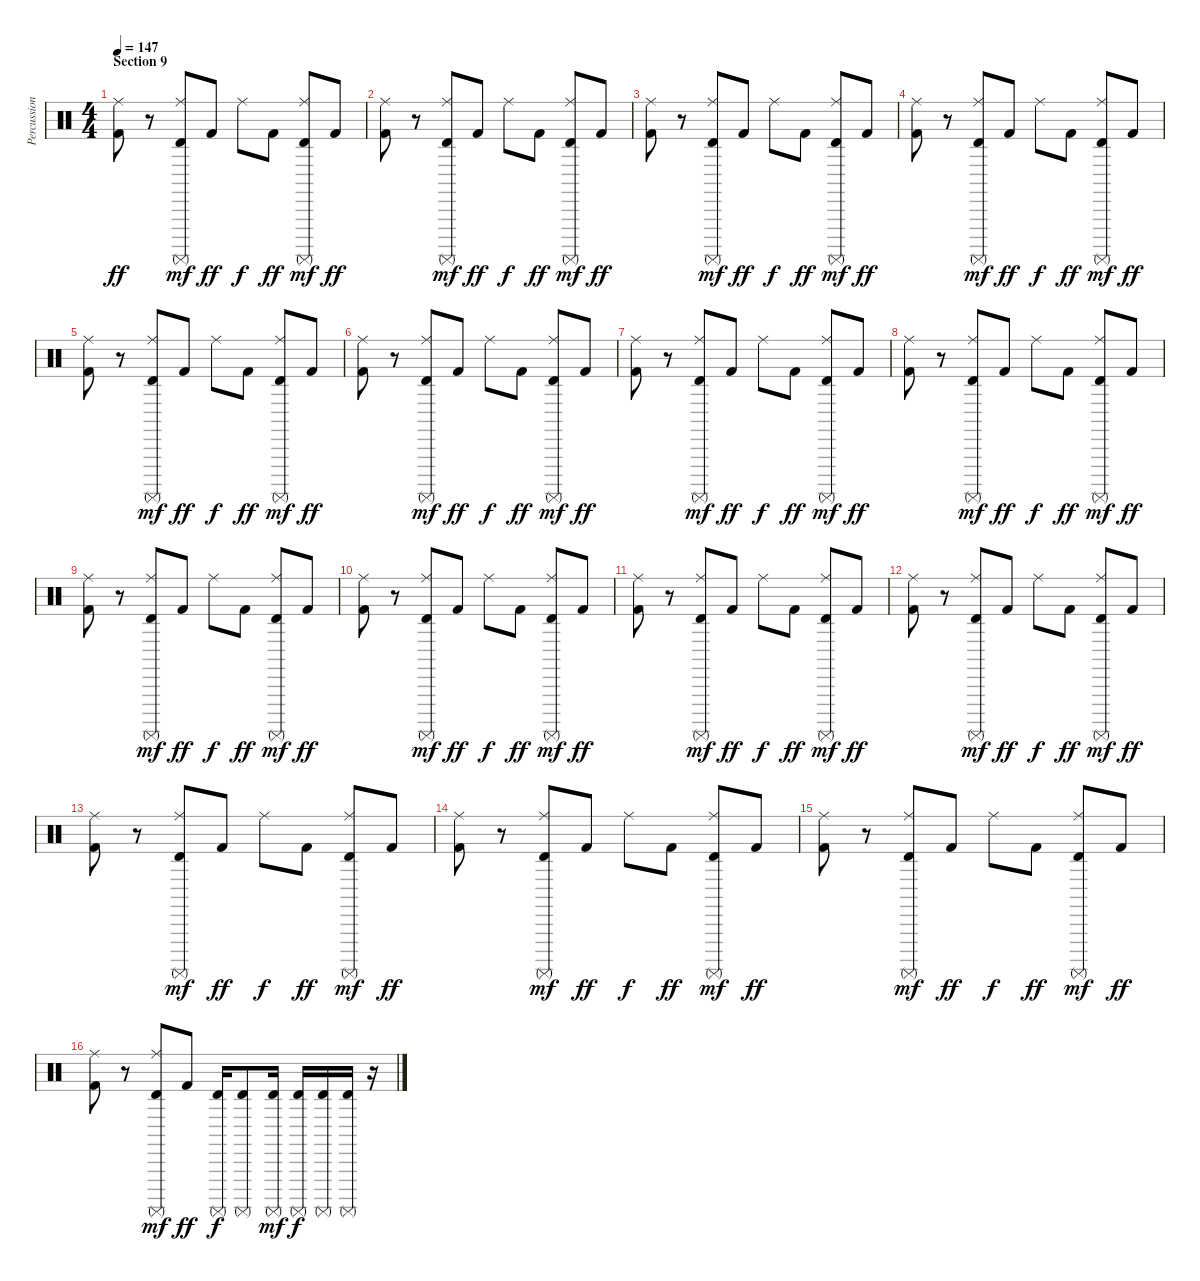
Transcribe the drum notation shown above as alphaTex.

\track ("Percussion" "Percussion") {instrument percussion}
\staff {score}
\articulation defaults
\ts (4 4)
\section ("" "Section 9")
\tempo 147
\clef neutral
\ks c
("Ride (middle)" "Kick (hit) 2").8{dy ff} r.8 ("Ride (middle)" "Surdo (mute)" "Timbale high (hit)").8{dy mf} "Kick (hit) 2".8{dy ff} "Ride (middle)".8{dy f} "Kick (hit) 2".8{dy ff} ("Ride (middle)" "Surdo (mute)" "Timbale high (hit)").8{dy mf} "Kick (hit) 2".8{dy ff} |
("Ride (middle)" "Kick (hit) 2").8 r.8 ("Ride (middle)" "Surdo (mute)" "Timbale high (hit)").8{dy mf} "Kick (hit) 2".8{dy ff} "Ride (middle)".8{dy f} "Kick (hit) 2".8{dy ff} ("Ride (middle)" "Surdo (mute)" "Timbale high (hit)").8{dy mf} "Kick (hit) 2".8{dy ff} |
("Ride (middle)" "Kick (hit) 2").8 r.8 ("Ride (middle)" "Surdo (mute)" "Timbale high (hit)").8{dy mf} "Kick (hit) 2".8{dy ff} "Ride (middle)".8{dy f} "Kick (hit) 2".8{dy ff} ("Ride (middle)" "Surdo (mute)" "Timbale high (hit)").8{dy mf} "Kick (hit) 2".8{dy ff} |
("Ride (middle)" "Kick (hit) 2").8 r.8 ("Ride (middle)" "Surdo (mute)" "Timbale high (hit)").8{dy mf} "Kick (hit) 2".8{dy ff} "Ride (middle)".8{dy f} "Kick (hit) 2".8{dy ff} ("Ride (middle)" "Surdo (mute)" "Timbale high (hit)").8{dy mf} "Kick (hit) 2".8{dy ff} |
("Ride (middle)" "Kick (hit) 2").8 r.8 ("Ride (middle)" "Surdo (mute)" "Timbale high (hit)").8{dy mf} "Kick (hit) 2".8{dy ff} "Ride (middle)".8{dy f} "Kick (hit) 2".8{dy ff} ("Ride (middle)" "Surdo (mute)" "Timbale high (hit)").8{dy mf} "Kick (hit) 2".8{dy ff} |
("Ride (middle)" "Kick (hit) 2").8 r.8 ("Ride (middle)" "Surdo (mute)" "Timbale high (hit)").8{dy mf} "Kick (hit) 2".8{dy ff} "Ride (middle)".8{dy f} "Kick (hit) 2".8{dy ff} ("Ride (middle)" "Surdo (mute)" "Timbale high (hit)").8{dy mf} "Kick (hit) 2".8{dy ff} |
("Ride (middle)" "Kick (hit) 2").8 r.8 ("Ride (middle)" "Surdo (mute)" "Timbale high (hit)").8{dy mf} "Kick (hit) 2".8{dy ff} "Ride (middle)".8{dy f} "Kick (hit) 2".8{dy ff} ("Ride (middle)" "Surdo (mute)" "Timbale high (hit)").8{dy mf} "Kick (hit) 2".8{dy ff} |
("Ride (middle)" "Kick (hit) 2").8 r.8 ("Ride (middle)" "Surdo (mute)" "Timbale high (hit)").8{dy mf} "Kick (hit) 2".8{dy ff} "Ride (middle)".8{dy f} "Kick (hit) 2".8{dy ff} ("Ride (middle)" "Surdo (mute)" "Timbale high (hit)").8{dy mf} "Kick (hit) 2".8{dy ff} |
("Ride (middle)" "Kick (hit) 2").8 r.8 ("Ride (middle)" "Surdo (mute)" "Timbale high (hit)").8{dy mf} "Kick (hit) 2".8{dy ff} "Ride (middle)".8{dy f} "Kick (hit) 2".8{dy ff} ("Ride (middle)" "Surdo (mute)" "Timbale high (hit)").8{dy mf} "Kick (hit) 2".8{dy ff} |
("Ride (middle)" "Kick (hit) 2").8 r.8 ("Ride (middle)" "Surdo (mute)" "Timbale high (hit)").8{dy mf} "Kick (hit) 2".8{dy ff} "Ride (middle)".8{dy f} "Kick (hit) 2".8{dy ff} ("Ride (middle)" "Surdo (mute)" "Timbale high (hit)").8{dy mf} "Kick (hit) 2".8{dy ff} |
("Ride (middle)" "Kick (hit) 2").8 r.8 ("Ride (middle)" "Surdo (mute)" "Timbale high (hit)").8{dy mf} "Kick (hit) 2".8{dy ff} "Ride (middle)".8{dy f} "Kick (hit) 2".8{dy ff} ("Ride (middle)" "Surdo (mute)" "Timbale high (hit)").8{dy mf} "Kick (hit) 2".8{dy ff} |
("Ride (middle)" "Kick (hit) 2").8 r.8 ("Ride (middle)" "Surdo (mute)" "Timbale high (hit)").8{dy mf} "Kick (hit) 2".8{dy ff} "Ride (middle)".8{dy f} "Kick (hit) 2".8{dy ff} ("Ride (middle)" "Surdo (mute)" "Timbale high (hit)").8{dy mf} "Kick (hit) 2".8{dy ff} |
("Ride (middle)" "Kick (hit) 2").8 r.8 ("Ride (middle)" "Surdo (mute)" "Timbale high (hit)").8{dy mf} "Kick (hit) 2".8{dy ff} "Ride (middle)".8{dy f} "Kick (hit) 2".8{dy ff} ("Ride (middle)" "Surdo (mute)" "Timbale high (hit)").8{dy mf} "Kick (hit) 2".8{dy ff} |
("Ride (middle)" "Kick (hit) 2").8 r.8 ("Ride (middle)" "Surdo (mute)" "Timbale high (hit)").8{dy mf} "Kick (hit) 2".8{dy ff} "Ride (middle)".8{dy f} "Kick (hit) 2".8{dy ff} ("Ride (middle)" "Surdo (mute)" "Timbale high (hit)").8{dy mf} "Kick (hit) 2".8{dy ff} |
("Ride (middle)" "Kick (hit) 2").8 r.8 ("Ride (middle)" "Surdo (mute)" "Timbale high (hit)").8{dy mf} "Kick (hit) 2".8{dy ff} "Ride (middle)".8{dy f} "Kick (hit) 2".8{dy ff} ("Ride (middle)" "Surdo (mute)" "Timbale high (hit)").8{dy mf} "Kick (hit) 2".8{dy ff} |
("Ride (middle)" "Kick (hit) 2").8 r.8 ("Ride (middle)" "Surdo (mute)" "Timbale high (hit)").8{dy mf} "Kick (hit) 2".8{dy ff} ("Surdo (mute)" "Timbale high (hit)").16{dy f} ("Surdo (mute)" "Timbale high (hit)").8 ("Surdo (mute)" "Timbale high (hit)").16{dy mf} ("Surdo (mute)" "Timbale high (hit)").16{dy f} ("Surdo (mute)" "Timbale high (hit)").16 ("Surdo (mute)" "Timbale high (hit)").16 r.16
